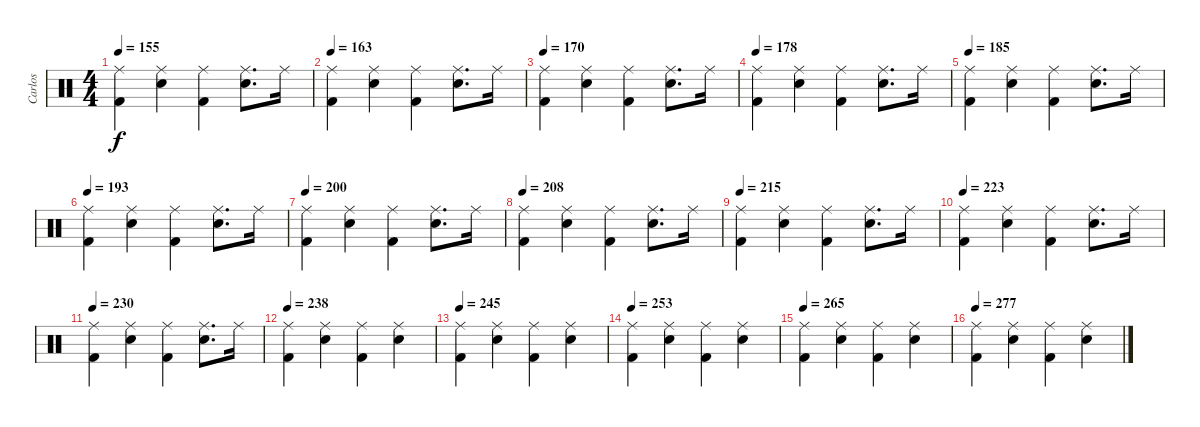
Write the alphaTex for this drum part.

\track ("Carlos" "Carlos") {instrument percussion}
\staff {score}
\articulation defaults
\ts (4 4)
\tempo 155
\clef neutral
\ks c
("Ride (middle)" "Kick (hit) 2").4{dy f} ("Ride (middle)" "Snare (hit) 2").4 ("Ride (middle)" "Kick (hit) 2").4 ("Ride (middle)" "Snare (hit) 2").8{d} "Ride (middle)".16 |
\tempo 163
("Ride (middle)" "Kick (hit) 2").4 ("Ride (middle)" "Snare (hit) 2").4 ("Ride (middle)" "Kick (hit) 2").4 ("Ride (middle)" "Snare (hit) 2").8{d} "Ride (middle)".16 |
\tempo 170
("Ride (middle)" "Kick (hit) 2").4 ("Ride (middle)" "Snare (hit) 2").4 ("Ride (middle)" "Kick (hit) 2").4 ("Ride (middle)" "Snare (hit) 2").8{d} "Ride (middle)".16 |
\tempo 178
("Ride (middle)" "Kick (hit) 2").4 ("Ride (middle)" "Snare (hit) 2").4 ("Ride (middle)" "Kick (hit) 2").4 ("Ride (middle)" "Snare (hit) 2").8{d} "Ride (middle)".16 |
\tempo 185
("Ride (middle)" "Kick (hit) 2").4 ("Ride (middle)" "Snare (hit) 2").4 ("Ride (middle)" "Kick (hit) 2").4 ("Ride (middle)" "Snare (hit) 2").8{d} "Ride (middle)".16 |
\tempo 193
("Ride (middle)" "Kick (hit) 2").4 ("Ride (middle)" "Snare (hit) 2").4 ("Ride (middle)" "Kick (hit) 2").4 ("Ride (middle)" "Snare (hit) 2").8{d} "Ride (middle)".16 |
\tempo 200
("Ride (middle)" "Kick (hit) 2").4 ("Ride (middle)" "Snare (hit) 2").4 ("Ride (middle)" "Kick (hit) 2").4 ("Ride (middle)" "Snare (hit) 2").8{d} "Ride (middle)".16 |
\tempo 208
("Ride (middle)" "Kick (hit) 2").4 ("Ride (middle)" "Snare (hit) 2").4 ("Ride (middle)" "Kick (hit) 2").4 ("Ride (middle)" "Snare (hit) 2").8{d} "Ride (middle)".16 |
\tempo 215
("Ride (middle)" "Kick (hit) 2").4 ("Ride (middle)" "Snare (hit) 2").4 ("Ride (middle)" "Kick (hit) 2").4 ("Ride (middle)" "Snare (hit) 2").8{d} "Ride (middle)".16 |
\tempo 223
("Ride (middle)" "Kick (hit) 2").4 ("Ride (middle)" "Snare (hit) 2").4 ("Ride (middle)" "Kick (hit) 2").4 ("Ride (middle)" "Snare (hit) 2").8{d} "Ride (middle)".16 |
\tempo 230
("Ride (middle)" "Kick (hit) 2").4 ("Ride (middle)" "Snare (hit) 2").4 ("Ride (middle)" "Kick (hit) 2").4 ("Ride (middle)" "Snare (hit) 2").8{d} "Ride (middle)".16 |
\tempo 238
("Ride (middle)" "Kick (hit) 2").4 ("Ride (middle)" "Snare (hit) 2").4 ("Ride (middle)" "Kick (hit) 2").4 ("Ride (middle)" "Snare (hit) 2").4 |
\tempo 245
("Ride (middle)" "Kick (hit) 2").4 ("Ride (middle)" "Snare (hit) 2").4 ("Ride (middle)" "Kick (hit) 2").4 ("Ride (middle)" "Snare (hit) 2").4 |
\tempo 253
("Ride (middle)" "Kick (hit) 2").4 ("Ride (middle)" "Snare (hit) 2").4 ("Ride (middle)" "Kick (hit) 2").4 ("Ride (middle)" "Snare (hit) 2").4 |
\tempo 265
("Ride (middle)" "Kick (hit) 2").4 ("Ride (middle)" "Snare (hit) 2").4 ("Ride (middle)" "Kick (hit) 2").4 ("Ride (middle)" "Snare (hit) 2").4 |
\tempo 277
("Ride (middle)" "Kick (hit) 2").4 ("Ride (middle)" "Snare (hit) 2").4 ("Ride (middle)" "Kick (hit) 2").4 ("Ride (middle)" "Snare (hit) 2").4
